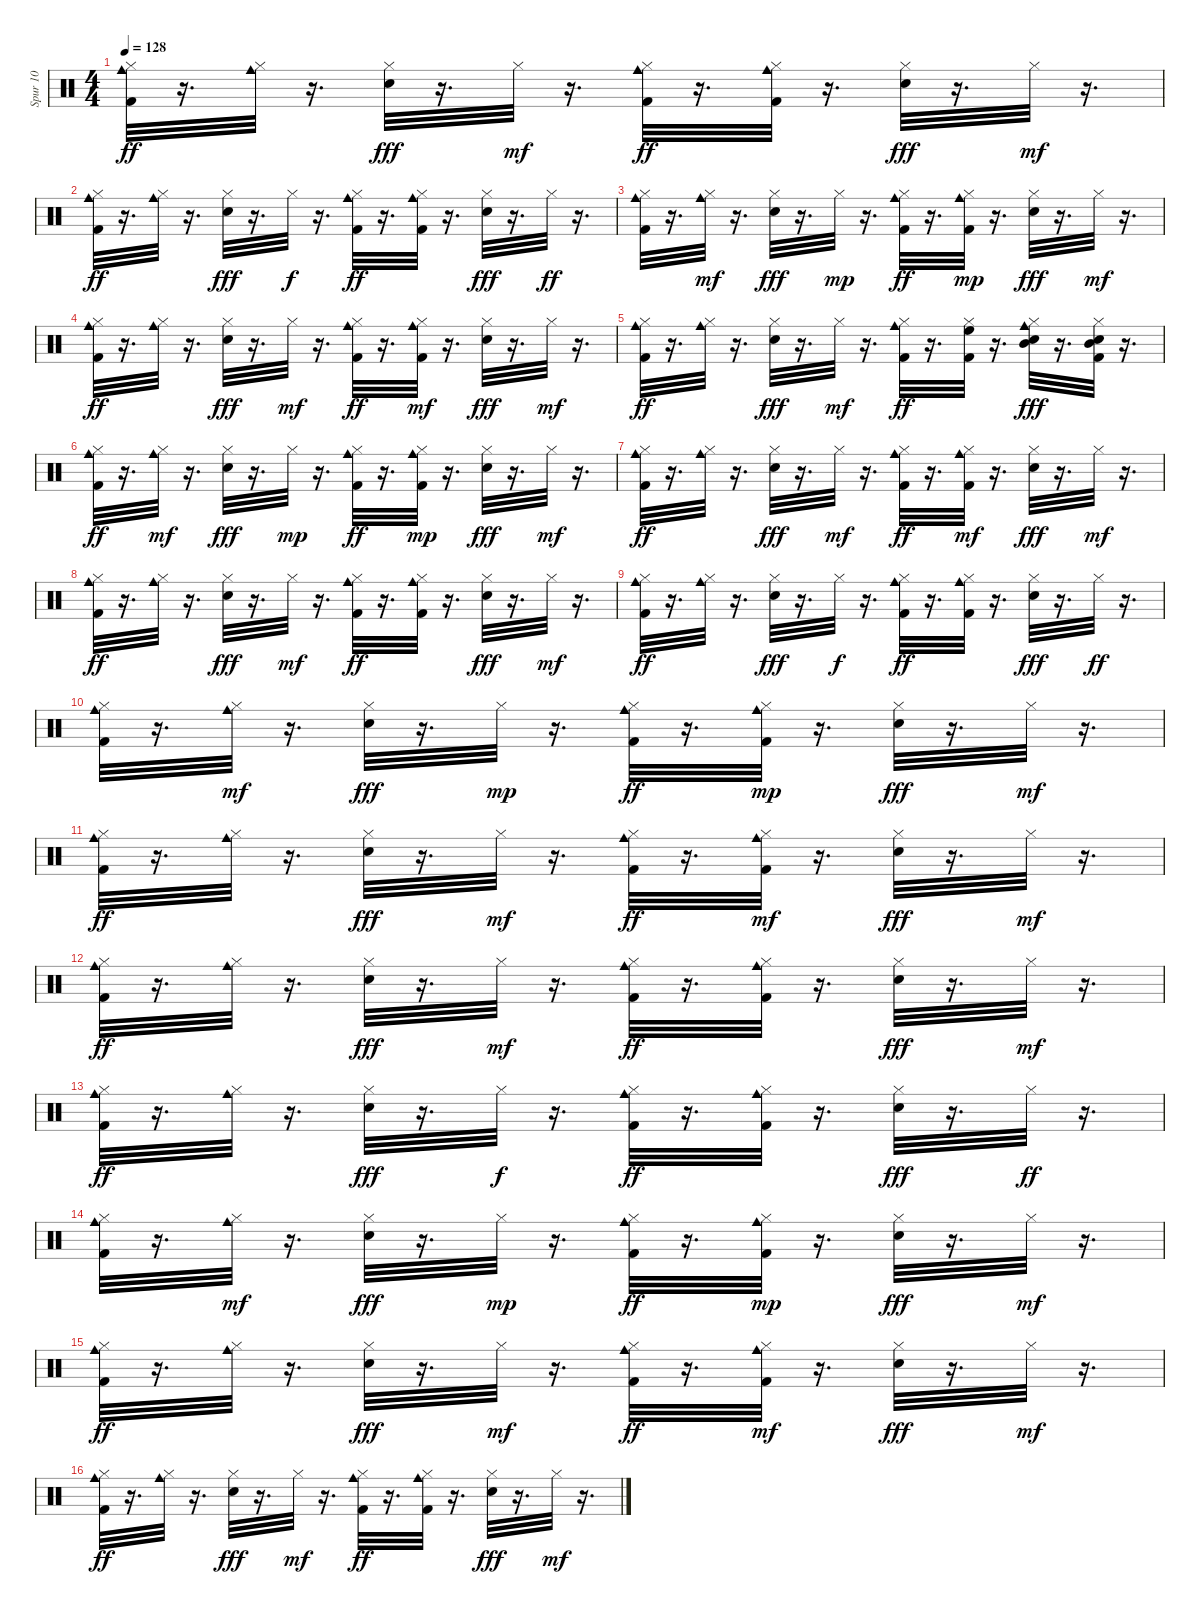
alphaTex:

\track ("Spur 10" "Spur 10") {instrument percussion}
\staff {score}
\articulation defaults
\ts (4 4)
\tempo 128
\clef neutral
\ks c
("Kick (hit) 2" "Hi-Hat (closed)" "Cowbell medium (hit)").32{dy ff} r.16{d} ("Hi-Hat (closed)" "Cowbell medium (hit)").32 r.16{d} ("Electric Snare (hit)" "Hi-Hat (closed)").32{dy fff} r.16{d} "Hi-Hat (closed)".32{dy mf} r.16{d} ("Kick (hit) 2" "Hi-Hat (closed)" "Cowbell medium (hit)").32{dy ff} r.16{d} ("Kick (hit) 2" "Hi-Hat (closed)" "Cowbell medium (hit)").32 r.16{d} ("Electric Snare (hit)" "Hi-Hat (closed)").32{dy fff} r.16{d} "Hi-Hat (closed)".32{dy mf} r.16{d} |
("Kick (hit) 2" "Hi-Hat (closed)" "Cowbell medium (hit)").32{dy ff} r.16{d} ("Hi-Hat (closed)" "Cowbell medium (hit)").32 r.16{d} ("Electric Snare (hit)" "Hi-Hat (closed)").32{dy fff} r.16{d} "Hi-Hat (closed)".32{dy f} r.16{d} ("Kick (hit) 2" "Hi-Hat (closed)" "Cowbell medium (hit)").32{dy ff} r.16{d} ("Kick (hit) 2" "Hi-Hat (closed)" "Cowbell medium (hit)").32 r.16{d} ("Electric Snare (hit)" "Hi-Hat (closed)").32{dy fff} r.16{d} "Hi-Hat (closed)".32{dy ff} r.16{d} |
("Kick (hit) 2" "Hi-Hat (closed)" "Cowbell medium (hit)").32 r.16{d} ("Hi-Hat (closed)" "Cowbell medium (hit)").32{dy mf} r.16{d} ("Electric Snare (hit)" "Hi-Hat (closed)").32{dy fff} r.16{d} "Hi-Hat (closed)".32{dy mp} r.16{d} ("Kick (hit) 2" "Hi-Hat (closed)" "Cowbell medium (hit)").32{dy ff} r.16{d} ("Kick (hit) 2" "Hi-Hat (closed)" "Cowbell medium (hit)").32{dy mp} r.16{d} ("Electric Snare (hit)" "Hi-Hat (closed)").32{dy fff} r.16{d} "Hi-Hat (closed)".32{dy mf} r.16{d} |
("Kick (hit) 2" "Hi-Hat (closed)" "Cowbell medium (hit)").32{dy ff} r.16{d} ("Hi-Hat (closed)" "Cowbell medium (hit)").32 r.16{d} ("Electric Snare (hit)" "Hi-Hat (closed)").32{dy fff} r.16{d} "Hi-Hat (closed)".32{dy mf} r.16{d} ("Kick (hit) 2" "Hi-Hat (closed)" "Cowbell medium (hit)").32{dy ff} r.16{d} ("Kick (hit) 2" "Hi-Hat (closed)" "Cowbell medium (hit)").32{dy mf} r.16{d} ("Electric Snare (hit)" "Hi-Hat (closed)").32{dy fff} r.16{d} "Hi-Hat (closed)".32{dy mf} r.16{d} |
("Kick (hit) 2" "Hi-Hat (closed)" "Cowbell medium (hit)").32{dy ff} r.16{d} ("Hi-Hat (closed)" "Cowbell medium (hit)").32 r.16{d} ("Electric Snare (hit)" "Hi-Hat (closed)").32{dy fff} r.16{d} "Hi-Hat (closed)".32{dy mf} r.16{d} ("Kick (hit) 2" "Hi-Hat (closed)" "Cowbell medium (hit)").32{dy ff} r.16{d} ("Kick (hit) 2" "Hi-Hat (closed)" "High Floor Tom (hit)").32 r.16{d} ("Electric Snare (hit)" "Hi-Hat (closed)" "Cowbell medium (hit)" "Mid Tom (hit)").32{dy fff} r.16{d} ("Kick (hit) 2" "Hi-Hat (closed)" "Electric Snare (hit)" "Mid Tom (hit)").32 r.16{d} |
("Kick (hit) 2" "Hi-Hat (closed)" "Cowbell medium (hit)").32{dy ff} r.16{d} ("Hi-Hat (closed)" "Cowbell medium (hit)").32{dy mf} r.16{d} ("Electric Snare (hit)" "Hi-Hat (closed)").32{dy fff} r.16{d} "Hi-Hat (closed)".32{dy mp} r.16{d} ("Kick (hit) 2" "Hi-Hat (closed)" "Cowbell medium (hit)").32{dy ff} r.16{d} ("Kick (hit) 2" "Hi-Hat (closed)" "Cowbell medium (hit)").32{dy mp} r.16{d} ("Electric Snare (hit)" "Hi-Hat (closed)").32{dy fff} r.16{d} "Hi-Hat (closed)".32{dy mf} r.16{d} |
("Kick (hit) 2" "Hi-Hat (closed)" "Cowbell medium (hit)").32{dy ff} r.16{d} ("Hi-Hat (closed)" "Cowbell medium (hit)").32 r.16{d} ("Electric Snare (hit)" "Hi-Hat (closed)").32{dy fff} r.16{d} "Hi-Hat (closed)".32{dy mf} r.16{d} ("Kick (hit) 2" "Hi-Hat (closed)" "Cowbell medium (hit)").32{dy ff} r.16{d} ("Kick (hit) 2" "Hi-Hat (closed)" "Cowbell medium (hit)").32{dy mf} r.16{d} ("Electric Snare (hit)" "Hi-Hat (closed)").32{dy fff} r.16{d} "Hi-Hat (closed)".32{dy mf} r.16{d} |
("Kick (hit) 2" "Hi-Hat (closed)" "Cowbell medium (hit)").32{dy ff} r.16{d} ("Hi-Hat (closed)" "Cowbell medium (hit)").32 r.16{d} ("Electric Snare (hit)" "Hi-Hat (closed)").32{dy fff} r.16{d} "Hi-Hat (closed)".32{dy mf} r.16{d} ("Kick (hit) 2" "Hi-Hat (closed)" "Cowbell medium (hit)").32{dy ff} r.16{d} ("Kick (hit) 2" "Hi-Hat (closed)" "Cowbell medium (hit)").32 r.16{d} ("Electric Snare (hit)" "Hi-Hat (closed)").32{dy fff} r.16{d} "Hi-Hat (closed)".32{dy mf} r.16{d} |
("Kick (hit) 2" "Hi-Hat (closed)" "Cowbell medium (hit)").32{dy ff} r.16{d} ("Hi-Hat (closed)" "Cowbell medium (hit)").32 r.16{d} ("Electric Snare (hit)" "Hi-Hat (closed)").32{dy fff} r.16{d} "Hi-Hat (closed)".32{dy f} r.16{d} ("Kick (hit) 2" "Hi-Hat (closed)" "Cowbell medium (hit)").32{dy ff} r.16{d} ("Kick (hit) 2" "Hi-Hat (closed)" "Cowbell medium (hit)").32 r.16{d} ("Electric Snare (hit)" "Hi-Hat (closed)").32{dy fff} r.16{d} "Hi-Hat (closed)".32{dy ff} r.16{d} |
("Kick (hit) 2" "Hi-Hat (closed)" "Cowbell medium (hit)").32 r.16{d} ("Hi-Hat (closed)" "Cowbell medium (hit)").32{dy mf} r.16{d} ("Electric Snare (hit)" "Hi-Hat (closed)").32{dy fff} r.16{d} "Hi-Hat (closed)".32{dy mp} r.16{d} ("Kick (hit) 2" "Hi-Hat (closed)" "Cowbell medium (hit)").32{dy ff} r.16{d} ("Kick (hit) 2" "Hi-Hat (closed)" "Cowbell medium (hit)").32{dy mp} r.16{d} ("Electric Snare (hit)" "Hi-Hat (closed)").32{dy fff} r.16{d} "Hi-Hat (closed)".32{dy mf} r.16{d} |
("Kick (hit) 2" "Hi-Hat (closed)" "Cowbell medium (hit)").32{dy ff} r.16{d} ("Hi-Hat (closed)" "Cowbell medium (hit)").32 r.16{d} ("Electric Snare (hit)" "Hi-Hat (closed)").32{dy fff} r.16{d} "Hi-Hat (closed)".32{dy mf} r.16{d} ("Kick (hit) 2" "Hi-Hat (closed)" "Cowbell medium (hit)").32{dy ff} r.16{d} ("Kick (hit) 2" "Hi-Hat (closed)" "Cowbell medium (hit)").32{dy mf} r.16{d} ("Electric Snare (hit)" "Hi-Hat (closed)").32{dy fff} r.16{d} "Hi-Hat (closed)".32{dy mf} r.16{d} |
("Kick (hit) 2" "Hi-Hat (closed)" "Cowbell medium (hit)").32{dy ff} r.16{d} ("Hi-Hat (closed)" "Cowbell medium (hit)").32 r.16{d} ("Electric Snare (hit)" "Hi-Hat (closed)").32{dy fff} r.16{d} "Hi-Hat (closed)".32{dy mf} r.16{d} ("Kick (hit) 2" "Hi-Hat (closed)" "Cowbell medium (hit)").32{dy ff} r.16{d} ("Kick (hit) 2" "Hi-Hat (closed)" "Cowbell medium (hit)").32 r.16{d} ("Electric Snare (hit)" "Hi-Hat (closed)").32{dy fff} r.16{d} "Hi-Hat (closed)".32{dy mf} r.16{d} |
("Kick (hit) 2" "Hi-Hat (closed)" "Cowbell medium (hit)").32{dy ff} r.16{d} ("Hi-Hat (closed)" "Cowbell medium (hit)").32 r.16{d} ("Electric Snare (hit)" "Hi-Hat (closed)").32{dy fff} r.16{d} "Hi-Hat (closed)".32{dy f} r.16{d} ("Kick (hit) 2" "Hi-Hat (closed)" "Cowbell medium (hit)").32{dy ff} r.16{d} ("Kick (hit) 2" "Hi-Hat (closed)" "Cowbell medium (hit)").32 r.16{d} ("Electric Snare (hit)" "Hi-Hat (closed)").32{dy fff} r.16{d} "Hi-Hat (closed)".32{dy ff} r.16{d} |
("Kick (hit) 2" "Hi-Hat (closed)" "Cowbell medium (hit)").32 r.16{d} ("Hi-Hat (closed)" "Cowbell medium (hit)").32{dy mf} r.16{d} ("Electric Snare (hit)" "Hi-Hat (closed)").32{dy fff} r.16{d} "Hi-Hat (closed)".32{dy mp} r.16{d} ("Kick (hit) 2" "Hi-Hat (closed)" "Cowbell medium (hit)").32{dy ff} r.16{d} ("Kick (hit) 2" "Hi-Hat (closed)" "Cowbell medium (hit)").32{dy mp} r.16{d} ("Electric Snare (hit)" "Hi-Hat (closed)").32{dy fff} r.16{d} "Hi-Hat (closed)".32{dy mf} r.16{d} |
("Kick (hit) 2" "Hi-Hat (closed)" "Cowbell medium (hit)").32{dy ff} r.16{d} ("Hi-Hat (closed)" "Cowbell medium (hit)").32 r.16{d} ("Electric Snare (hit)" "Hi-Hat (closed)").32{dy fff} r.16{d} "Hi-Hat (closed)".32{dy mf} r.16{d} ("Kick (hit) 2" "Hi-Hat (closed)" "Cowbell medium (hit)").32{dy ff} r.16{d} ("Kick (hit) 2" "Hi-Hat (closed)" "Cowbell medium (hit)").32{dy mf} r.16{d} ("Electric Snare (hit)" "Hi-Hat (closed)").32{dy fff} r.16{d} "Hi-Hat (closed)".32{dy mf} r.16{d} |
("Kick (hit) 2" "Hi-Hat (closed)" "Cowbell medium (hit)").32{dy ff} r.16{d} ("Hi-Hat (closed)" "Cowbell medium (hit)").32 r.16{d} ("Electric Snare (hit)" "Hi-Hat (closed)").32{dy fff} r.16{d} "Hi-Hat (closed)".32{dy mf} r.16{d} ("Kick (hit) 2" "Hi-Hat (closed)" "Cowbell medium (hit)").32{dy ff} r.16{d} ("Kick (hit) 2" "Hi-Hat (closed)" "Cowbell medium (hit)").32 r.16{d} ("Electric Snare (hit)" "Hi-Hat (closed)").32{dy fff} r.16{d} "Hi-Hat (closed)".32{dy mf} r.16{d}
